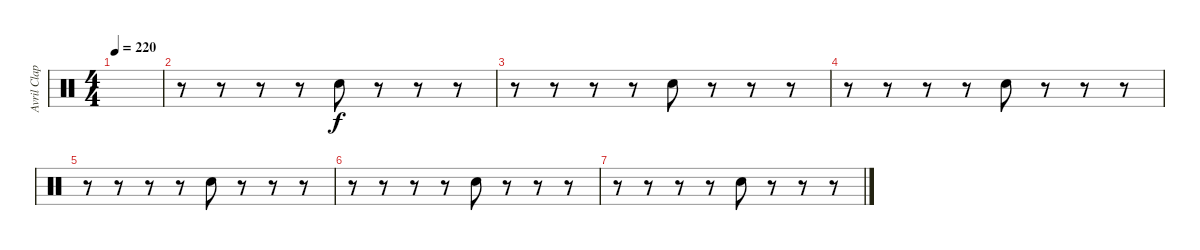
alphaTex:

\track ("Avril Claps" "Avril Clap") {instrument percussion}
\staff {score}
\articulation defaults
\ts (4 4)
\tempo 220
\clef neutral
\ks c
|
r.8 r.8 r.8 r.8 "Hand Clap (hit)".8 r.8 r.8 r.8 |
r.8 r.8 r.8 r.8 "Hand Clap (hit)".8 r.8 r.8 r.8 |
r.8 r.8 r.8 r.8 "Hand Clap (hit)".8 r.8 r.8 r.8 |
r.8 r.8 r.8 r.8 "Hand Clap (hit)".8 r.8 r.8 r.8 |
r.8 r.8 r.8 r.8 "Hand Clap (hit)".8 r.8 r.8 r.8 |
r.8 r.8 r.8 r.8 "Hand Clap (hit)".8 r.8 r.8 r.8
